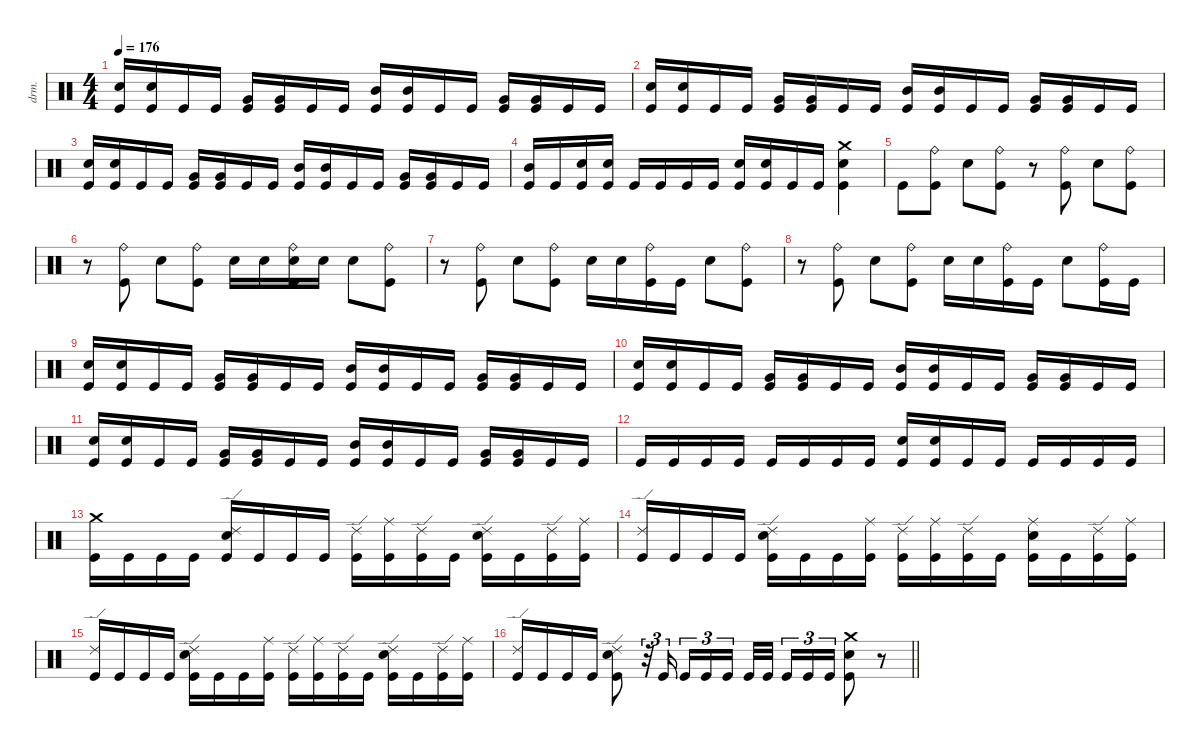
\defaultSystemsLayout 4
\hideDynamics
\bracketExtendMode nobrackets
\track ("Gene Hoglan " "drm.") {instrument percussion}
\staff {score}
\articulation defaults
\ts (4 4)
\tempo 176
\clef neutral
\ks c
("Snare (hit) 2" "Kick (hit)").16{dy f} ("Snare (hit) 2" "Kick (hit)").16 "Kick (hit)".16 "Kick (hit)".16 ("Very Low Tom (hit)" "Kick (hit)").16 ("Very Low Tom (hit)" "Kick (hit)").16 "Kick (hit)".16 "Kick (hit)".16 ("Mid Tom (hit)" "Kick (hit)").16 ("Mid Tom (hit)" "Kick (hit)").16 "Kick (hit)".16 "Kick (hit)".16 ("Very Low Tom (hit)" "Kick (hit)").16 ("Very Low Tom (hit)" "Kick (hit)").16 "Kick (hit)".16 "Kick (hit)".16 |
("Snare (hit) 2" "Kick (hit)").16 ("Snare (hit) 2" "Kick (hit)").16 "Kick (hit)".16 "Kick (hit)".16 ("Very Low Tom (hit)" "Kick (hit)").16 ("Very Low Tom (hit)" "Kick (hit)").16 "Kick (hit)".16 "Kick (hit)".16 ("Mid Tom (hit)" "Kick (hit)").16 ("Mid Tom (hit)" "Kick (hit)").16 "Kick (hit)".16 "Kick (hit)".16 ("Very Low Tom (hit)" "Kick (hit)").16 ("Very Low Tom (hit)" "Kick (hit)").16 "Kick (hit)".16 "Kick (hit)".16 |
("Snare (hit) 2" "Kick (hit)").16 ("Snare (hit) 2" "Kick (hit)").16 "Kick (hit)".16 "Kick (hit)".16 ("Very Low Tom (hit)" "Kick (hit)").16 ("Very Low Tom (hit)" "Kick (hit)").16 "Kick (hit)".16 "Kick (hit)".16 ("Mid Tom (hit)" "Kick (hit)").16 ("Mid Tom (hit)" "Kick (hit)").16 "Kick (hit)".16 "Kick (hit)".16 ("Very Low Tom (hit)" "Kick (hit)").16 ("Very Low Tom (hit)" "Kick (hit)").16 "Kick (hit)".16 "Kick (hit)".16 |
("Mid Tom (hit)" "Kick (hit)").16 "Kick (hit)".16 ("Snare (hit) 2" "Kick (hit)").16 ("Snare (hit) 2" "Kick (hit)").16 "Kick (hit)".16 "Kick (hit)".16 "Kick (hit)".16 "Kick (hit)".16 ("Snare (hit) 2" "Kick (hit)").16 ("Snare (hit) 2" "Kick (hit)").16 "Kick (hit)".16 "Kick (hit)".16 ("Crash medium (hit)" "Snare (hit) 2" "Kick (hit)").4 |
"Kick (hit)".8 ("Ride (bell)" "Kick (hit)").8 "Snare (hit) 2".8 ("Ride (bell)" "Kick (hit)").8 r.8 ("Ride (bell)" "Kick (hit)").8 "Snare (hit) 2".8 ("Ride (bell)" "Kick (hit)").8 |
r.8 ("Ride (bell)" "Kick (hit)").8 "Snare (hit) 2".8 ("Ride (bell)" "Kick (hit)").8 "Snare (hit) 2".16 "Snare (hit) 2".16 ("Ride (bell)" "Snare (hit) 2" "Kick (hit)").16 "Snare (hit) 2".16 "Snare (hit) 2".8 ("Ride (bell)" "Kick (hit)").8 |
r.8 ("Ride (bell)" "Kick (hit)").8 "Snare (hit) 2".8 ("Ride (bell)" "Kick (hit)").8 "Snare (hit) 2".16 "Snare (hit) 2".16 ("Ride (bell)" "Kick (hit)").16 "Kick (hit)".16 "Snare (hit) 2".8 ("Ride (bell)" "Kick (hit)").8 |
r.8 ("Ride (bell)" "Kick (hit)").8 "Snare (hit) 2".8 ("Ride (bell)" "Kick (hit)").8 "Snare (hit) 2".16 "Snare (hit) 2".16 ("Ride (bell)" "Kick (hit)").16 "Kick (hit)".16 "Snare (hit) 2".8 ("Ride (bell)" "Kick (hit)").16 "Kick (hit)".16 |
("Snare (hit) 2" "Kick (hit)").16 ("Snare (hit) 2" "Kick (hit)").16 "Kick (hit)".16 "Kick (hit)".16 ("Very Low Tom (hit)" "Kick (hit)").16 ("Very Low Tom (hit)" "Kick (hit)").16 "Kick (hit)".16 "Kick (hit)".16 ("Mid Tom (hit)" "Kick (hit)").16 ("Mid Tom (hit)" "Kick (hit)").16 "Kick (hit)".16 "Kick (hit)".16 ("Very Low Tom (hit)" "Kick (hit)").16 ("Very Low Tom (hit)" "Kick (hit)").16 "Kick (hit)".16 "Kick (hit)".16 |
("Snare (hit) 2" "Kick (hit)").16 ("Snare (hit) 2" "Kick (hit)").16 "Kick (hit)".16 "Kick (hit)".16 ("Very Low Tom (hit)" "Kick (hit)").16 ("Very Low Tom (hit)" "Kick (hit)").16 "Kick (hit)".16 "Kick (hit)".16 ("Mid Tom (hit)" "Kick (hit)").16 ("Mid Tom (hit)" "Kick (hit)").16 "Kick (hit)".16 "Kick (hit)".16 ("Very Low Tom (hit)" "Kick (hit)").16 ("Very Low Tom (hit)" "Kick (hit)").16 "Kick (hit)".16 "Kick (hit)".16 |
("Snare (hit) 2" "Kick (hit)").16 ("Snare (hit) 2" "Kick (hit)").16 "Kick (hit)".16 "Kick (hit)".16 ("Very Low Tom (hit)" "Kick (hit)").16 ("Very Low Tom (hit)" "Kick (hit)").16 "Kick (hit)".16 "Kick (hit)".16 ("Mid Tom (hit)" "Kick (hit)").16 ("Mid Tom (hit)" "Kick (hit)").16 "Kick (hit)".16 "Kick (hit)".16 ("Very Low Tom (hit)" "Kick (hit)").16 ("Very Low Tom (hit)" "Kick (hit)").16 "Kick (hit)".16 "Kick (hit)".16 |
"Kick (hit)".16 "Kick (hit)".16 "Kick (hit)".16 "Kick (hit)".16 "Kick (hit)".16 "Kick (hit)".16 "Kick (hit)".16 "Kick (hit)".16 ("Snare (hit) 2" "Kick (hit)").16 ("Snare (hit) 2" "Kick (hit)").16 "Kick (hit)".16 "Kick (hit)".16 "Kick (hit)".16 "Kick (hit)".16 "Kick (hit)".16 "Kick (hit)".16 |
("Crash medium (hit)" "Kick (hit)").16 "Kick (hit)".16 "Kick (hit)".16 "Kick (hit)".16 ("Ride (edge) 2" "Snare (hit) 2" "Kick (hit)").16 "Kick (hit)".16 "Kick (hit)".16 "Kick (hit)".16 ("Ride (edge) 2" "Kick (hit)").16 ("Ride (middle)" "Kick (hit)").16 ("Ride (edge) 2" "Kick (hit)").16 "Kick (hit)".16 ("Ride (edge) 2" "Snare (hit) 2" "Kick (hit)").16 "Kick (hit)".16 ("Ride (edge) 2" "Kick (hit)").16 ("Ride (middle)" "Kick (hit)").16 |
("Ride (edge) 2" "Kick (hit)").16 "Kick (hit)".16 "Kick (hit)".16 "Kick (hit)".16 ("Ride (edge) 2" "Snare (hit) 2" "Kick (hit)").16 "Kick (hit)".16 "Kick (hit)".16 ("Ride (middle)" "Kick (hit)").16 ("Ride (edge) 2" "Kick (hit)").16 ("Ride (middle)" "Kick (hit)").16 ("Ride (edge) 2" "Kick (hit)").16 "Kick (hit)".16 ("Ride (middle)" "Snare (hit) 2" "Kick (hit)").16 "Kick (hit)".16 ("Ride (edge) 2" "Kick (hit)").16 ("Ride (middle)" "Kick (hit)").16 |
("Ride (edge) 2" "Kick (hit)").16 "Kick (hit)".16 "Kick (hit)".16 "Kick (hit)".16 ("Ride (edge) 2" "Snare (hit) 2" "Kick (hit)").16 "Kick (hit)".16 "Kick (hit)".16 ("Ride (middle)" "Kick (hit)").16 ("Ride (edge) 2" "Kick (hit)").16 ("Ride (middle)" "Kick (hit)").16 ("Ride (edge) 2" "Kick (hit)").16 "Kick (hit)".16 ("Ride (edge) 2" "Snare (hit) 2" "Kick (hit)").16 "Kick (hit)".16 ("Ride (edge) 2" "Kick (hit)").16 ("Ride (middle)" "Kick (hit)").16 |
\barLineRight lightlight
("Ride (edge) 2" "Kick (hit)").16 "Kick (hit)".16 "Kick (hit)".16 "Kick (hit)".16 ("Ride (edge) 2" "Snare (hit) 2" "Kick (hit)").8 r.32{tu (3 2)} "Kick (hit)".16{tu (3 2)} "Kick (hit)".16{tu (3 2)} "Kick (hit)".16{tu (3 2)} "Kick (hit)".16{tu (3 2)} "Kick (hit)".32 "Kick (hit)".32 "Kick (hit)".16{tu (3 2)} "Kick (hit)".16{tu (3 2)} "Kick (hit)".16{tu (3 2)} ("Crash medium (hit)" "Snare (hit) 2" "Kick (hit)").8 r.8
